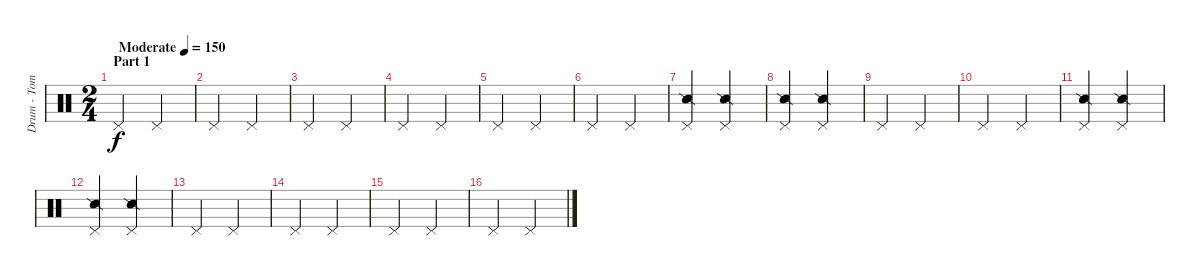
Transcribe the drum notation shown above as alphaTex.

\track ("Drum - Tom" "Drum - Tom") {instrument percussion}
\staff {score}
\articulation defaults
\ts (2 4)
\section ("" "Part 1")
\tempo (150 "Moderate")
\clef neutral
\ks c "Pedal Hi-Hat (hit)".4{dy f} "Pedal Hi-Hat (hit)".4
|
"Pedal Hi-Hat (hit)".4 "Pedal Hi-Hat (hit)".4 |
"Pedal Hi-Hat (hit)".4 "Pedal Hi-Hat (hit)".4 |
"Pedal Hi-Hat (hit)".4 "Pedal Hi-Hat (hit)".4 |
"Pedal Hi-Hat (hit)".4 "Pedal Hi-Hat (hit)".4 |
"Pedal Hi-Hat (hit)".4 "Pedal Hi-Hat (hit)".4 |
("Pedal Hi-Hat (hit)" "Snare (side stick) 2").4 ("Pedal Hi-Hat (hit)" "Snare (side stick) 2").4 |
("Pedal Hi-Hat (hit)" "Snare (side stick) 2").4 ("Pedal Hi-Hat (hit)" "Snare (side stick) 2").4 |
"Pedal Hi-Hat (hit)".4 "Pedal Hi-Hat (hit)".4 |
"Pedal Hi-Hat (hit)".4 "Pedal Hi-Hat (hit)".4 |
("Pedal Hi-Hat (hit)" "Snare (side stick) 2").4 ("Pedal Hi-Hat (hit)" "Snare (side stick) 2").4 |
("Pedal Hi-Hat (hit)" "Snare (side stick) 2").4 ("Pedal Hi-Hat (hit)" "Snare (side stick) 2").4 |
"Pedal Hi-Hat (hit)".4 "Pedal Hi-Hat (hit)".4 |
"Pedal Hi-Hat (hit)".4 "Pedal Hi-Hat (hit)".4 |
"Pedal Hi-Hat (hit)".4 "Pedal Hi-Hat (hit)".4 |
"Pedal Hi-Hat (hit)".4 "Pedal Hi-Hat (hit)".4
